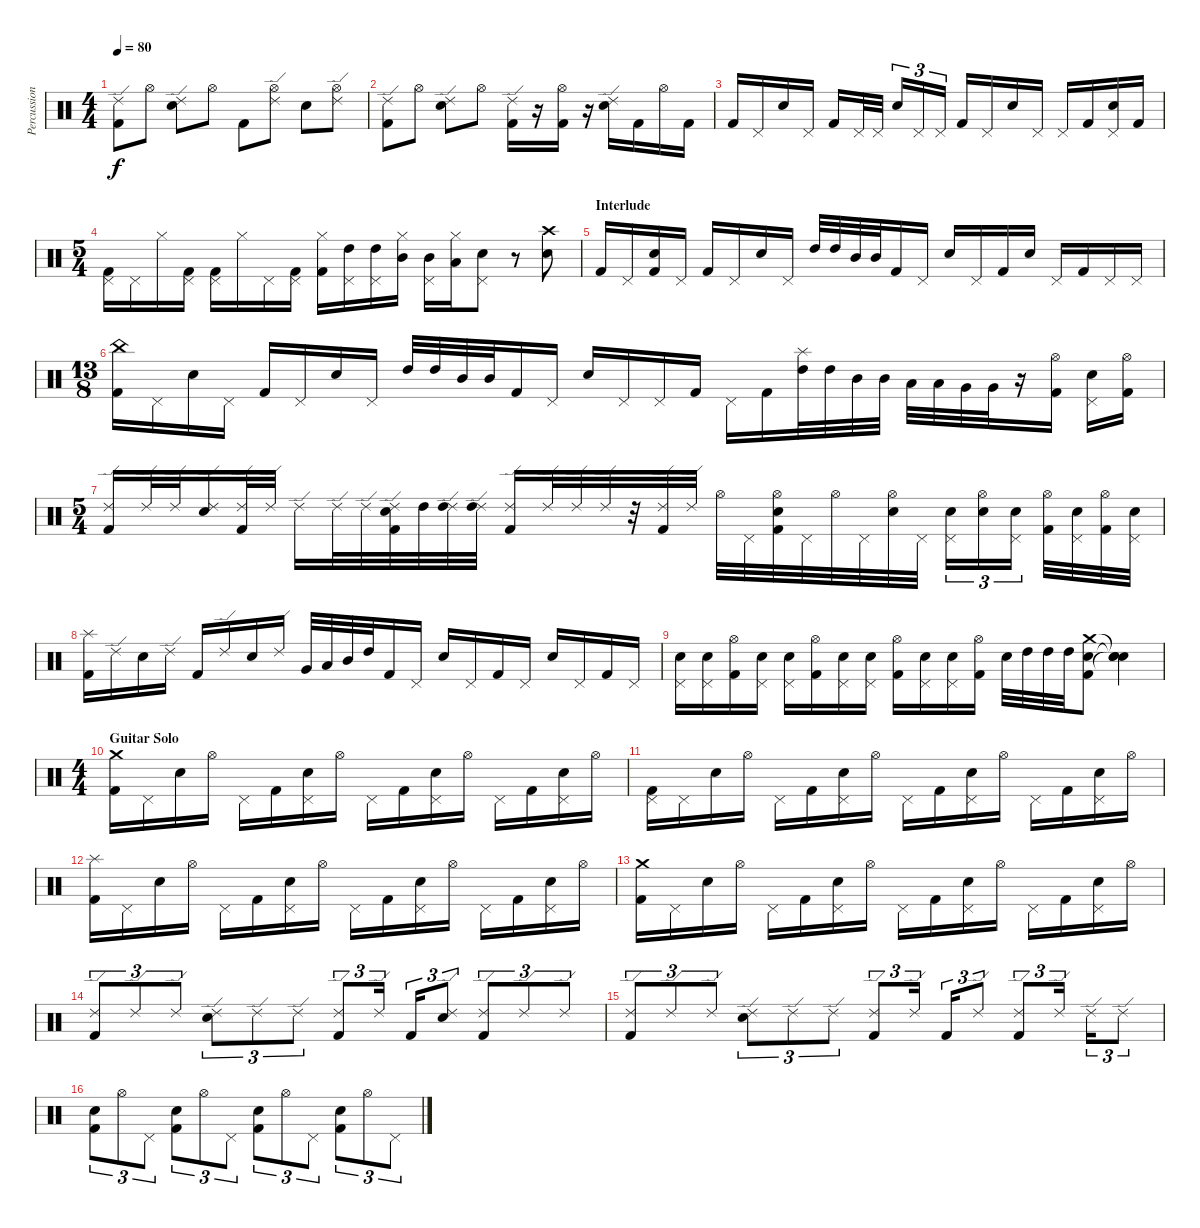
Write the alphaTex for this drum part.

\track ("Percussion" "Percussion") {instrument percussion}
\staff {score}
\articulation defaults
\ts (4 4)
\tempo 80
\clef neutral
\ks c
("Ride (edge) 2" "Kick (hit) 2").8{dy f} "Hi-Hat (open)".8 ("Ride (edge) 2" "Electric Snare (hit)").8 "Hi-Hat (open)".8 "Kick (hit) 2".8 ("Ride (edge) 2" "Hi-Hat (open)").8 "Electric Snare (hit)".8 ("Ride (edge) 2" "Hi-Hat (open)").8 |
("Ride (edge) 2" "Kick (hit) 2").8 "Hi-Hat (open)".8 ("Ride (edge) 2" "Electric Snare (hit)").8 "Hi-Hat (open)".8 ("Ride (edge) 2" "Kick (hit) 2").16 r.16 ("Hi-Hat (open)" "Kick (hit) 2").16 r.16 ("Ride (edge) 2" "Electric Snare (hit)").16 "Kick (hit) 2".16 "Hi-Hat (open)".16 "Kick (hit) 2".16 |
"Kick (hit) 2".16 "Pedal Hi-Hat (hit)".16 "Electric Snare (hit)".16 "Pedal Hi-Hat (hit)".16 "Kick (hit) 2".16 "Pedal Hi-Hat (hit)".32 "Pedal Hi-Hat (hit)".32 "Electric Snare (hit)".16{tu (3 2)} "Pedal Hi-Hat (hit)".16{tu (3 2)} "Pedal Hi-Hat (hit)".16{tu (3 2)} "Kick (hit) 2".16 "Pedal Hi-Hat (hit)".16 "Electric Snare (hit)".16 "Pedal Hi-Hat (hit)".16 "Pedal Hi-Hat (hit)".16 "Kick (hit) 2".16 ("Pedal Hi-Hat (hit)" "Electric Snare (hit)").16 "Kick (hit) 2".16 |
\ts (5 4)
("Pedal Hi-Hat (hit)" "Kick (hit) 2").16 "Pedal Hi-Hat (hit)".16 "Hi-Hat (closed)".16 ("Pedal Hi-Hat (hit)" "Kick (hit) 2").16 ("Pedal Hi-Hat (hit)" "Kick (hit) 2").16 "Hi-Hat (closed)".16 "Pedal Hi-Hat (hit)".16 ("Pedal Hi-Hat (hit)" "Kick (hit) 2").16 ("Hi-Hat (closed)" "Kick (hit) 2").16 ("Pedal Hi-Hat (hit)" "High Tom (hit)").16 ("Pedal Hi-Hat (hit)" "High Tom (hit)").16 ("Hi-Hat (closed)" "Mid Tom (hit)").16 ("Pedal Hi-Hat (hit)" "Mid Tom (hit)").16 ("Hi-Hat (closed)" "Low Tom (hit)").16 ("Pedal Hi-Hat (hit)" "Electric Snare (hit)").8 r.8 ("Crash high (hit)" "Electric Snare (hit)").8 |
\section ("" "Interlude")
"Kick (hit) 2".16 "Pedal Hi-Hat (hit)".16 ("Electric Snare (hit)" "Kick (hit) 2").16 "Pedal Hi-Hat (hit)".16 "Kick (hit) 2".16 "Pedal Hi-Hat (hit)".16 "Electric Snare (hit)".16 "Pedal Hi-Hat (hit)".16 "High Tom (hit)".32 "High Tom (hit)".32 "Mid Tom (hit)".32 "Mid Tom (hit)".32 "Kick (hit) 2".16 "Pedal Hi-Hat (hit)".16 "Electric Snare (hit)".16 "Pedal Hi-Hat (hit)".16 "Kick (hit) 2".16 "Electric Snare (hit)".16 "Pedal Hi-Hat (hit)".16 "Kick (hit) 2".16 "Pedal Hi-Hat (hit)".16 "Pedal Hi-Hat (hit)".16 |
\ts (13 8)
("China (hit)" "Kick (hit) 2").16 "Pedal Hi-Hat (hit)".16 "Electric Snare (hit)".16 "Pedal Hi-Hat (hit)".16 "Kick (hit) 2".16 "Pedal Hi-Hat (hit)".16 "Electric Snare (hit)".16 "Pedal Hi-Hat (hit)".16 "High Tom (hit)".32 "High Tom (hit)".32 "Mid Tom (hit)".32 "Mid Tom (hit)".32 "Kick (hit) 2".16 "Pedal Hi-Hat (hit)".16 "Electric Snare (hit)".16 "Pedal Hi-Hat (hit)".16 "Pedal Hi-Hat (hit)".16 "Kick (hit) 2".16 "Pedal Hi-Hat (hit)".16 "Kick (hit) 2".16 ("Splash (hit)" "High Tom (hit)").32 "High Tom (hit)".32 "Mid Tom (hit)".32 "Mid Tom (hit)".32 "Low Tom (hit)".32 "Low Tom (hit)".32 "Very Low Tom (hit)".32 "Very Low Tom (hit)".32 r.16 ("Hi-Hat (open)" "Kick (hit) 2").16 ("Pedal Hi-Hat (hit)" "Electric Snare (hit)").16 ("Hi-Hat (open)" "Kick (hit) 2").16 |
\ts (5 4)
("Ride (edge) 2" "Kick (hit) 2").16 "Ride (edge) 2".32 "Ride (edge) 2".32 ("Ride (edge) 2" "Electric Snare (hit)").16 ("Ride (edge) 2" "Kick (hit) 2").32 "Ride (edge) 2".32 "Ride (edge) 2".16 "Ride (edge) 2".32 "Ride (edge) 2".32 ("Ride (edge) 2" "Electric Snare (hit)" "Kick (hit) 2").32 "High Tom (hit)".32 ("Ride (edge) 2" "High Tom (hit)").32 ("Ride (edge) 2" "High Tom (hit)").32 ("Ride (edge) 2" "Kick (hit) 2").16 "Ride (edge) 2".32 "Ride (edge) 2".32 "Ride (edge) 2".32 r.32 ("Ride (edge) 2" "Kick (hit) 2").32 "Ride (edge) 2".32 "Hi-Hat (open)".32 "Pedal Hi-Hat (hit)".32 ("Hi-Hat (open)" "Electric Snare (hit)" "Kick (hit) 2").32 "Pedal Hi-Hat (hit)".32 "Hi-Hat (open)".32 "Pedal Hi-Hat (hit)".32 ("Hi-Hat (open)" "Electric Snare (hit)").32 "Pedal Hi-Hat (hit)".32 ("Pedal Hi-Hat (hit)" "Electric Snare (hit)").16{tu (3 2)} ("Hi-Hat (open)" "Electric Snare (hit)").16{tu (3 2)} ("Pedal Hi-Hat (hit)" "Electric Snare (hit)").16{tu (3 2)} ("Hi-Hat (open)" "Kick (hit) 2").32 ("Pedal Hi-Hat (hit)" "Electric Snare (hit)").32 ("Hi-Hat (open)" "Kick (hit) 2").32 ("Pedal Hi-Hat (hit)" "Electric Snare (hit)").32 |
("Splash (hit)" "Kick (hit) 2").16 "Ride (edge) 2".16 "Electric Snare (hit)".16 "Ride (edge) 2".16 "Kick (hit) 2".16 "Ride (edge) 2".16 "Electric Snare (hit)".16 "Ride (edge) 2".16 "Very Low Tom (hit)".32 "Low Tom (hit)".32 "Mid Tom (hit)".32 "High Tom (hit)".32 "Kick (hit) 2".16 "Pedal Hi-Hat (hit)".16 "Electric Snare (hit)".16 "Pedal Hi-Hat (hit)".16 "Kick (hit) 2".16 "Pedal Hi-Hat (hit)".16 "Electric Snare (hit)".16 "Pedal Hi-Hat (hit)".16 "Kick (hit) 2".16 "Pedal Hi-Hat (hit)".16 |
("Pedal Hi-Hat (hit)" "Electric Snare (hit)").16 ("Pedal Hi-Hat (hit)" "Electric Snare (hit)").16 ("Hi-Hat (open)" "Kick (hit) 2").16 ("Pedal Hi-Hat (hit)" "Electric Snare (hit)").16 ("Pedal Hi-Hat (hit)" "Electric Snare (hit)").16 ("Hi-Hat (open)" "Kick (hit) 2").16 ("Pedal Hi-Hat (hit)" "Electric Snare (hit)").16 ("Pedal Hi-Hat (hit)" "Electric Snare (hit)").16 ("Hi-Hat (open)" "Kick (hit) 2").16 ("Pedal Hi-Hat (hit)" "Electric Snare (hit)").16 ("Pedal Hi-Hat (hit)" "Electric Snare (hit)").16 ("Hi-Hat (open)" "Kick (hit) 2").16 "Electric Snare (hit)".32 "High Tom (hit)".32 "High Tom (hit)".32 "High Tom (hit)".32 ("Crash medium (hit)" "Electric Snare (hit)" "Kick (hit) 2").8 ("Snare (hit)"{t} "Snare (hit)"{t} "Snare (hit)"{t}).4 |
\ts (4 4)
\section ("" "Guitar Solo")
("Crash medium (hit)" "Kick (hit) 2").16 "Pedal Hi-Hat (hit)".16 "Electric Snare (hit)".16 "Hi-Hat (open)".16 "Pedal Hi-Hat (hit)".16 "Kick (hit) 2".16 ("Pedal Hi-Hat (hit)" "Electric Snare (hit)").16 "Hi-Hat (open)".16 "Pedal Hi-Hat (hit)".16 "Kick (hit) 2".16 ("Pedal Hi-Hat (hit)" "Electric Snare (hit)").16 "Hi-Hat (open)".16 "Pedal Hi-Hat (hit)".16 "Kick (hit) 2".16 ("Pedal Hi-Hat (hit)" "Electric Snare (hit)").16 "Hi-Hat (open)".16 |
("Pedal Hi-Hat (hit)" "Kick (hit) 2").16 "Pedal Hi-Hat (hit)".16 "Electric Snare (hit)".16 "Hi-Hat (open)".16 "Pedal Hi-Hat (hit)".16 "Kick (hit) 2".16 ("Pedal Hi-Hat (hit)" "Electric Snare (hit)").16 "Hi-Hat (open)".16 "Pedal Hi-Hat (hit)".16 "Kick (hit) 2".16 ("Pedal Hi-Hat (hit)" "Electric Snare (hit)").16 "Hi-Hat (open)".16 "Pedal Hi-Hat (hit)".16 "Kick (hit) 2".16 ("Pedal Hi-Hat (hit)" "Electric Snare (hit)").16 "Hi-Hat (open)".16 |
("Splash (hit)" "Kick (hit) 2").16 "Pedal Hi-Hat (hit)".16 "Electric Snare (hit)".16 "Hi-Hat (open)".16 "Pedal Hi-Hat (hit)".16 "Kick (hit) 2".16 ("Pedal Hi-Hat (hit)" "Electric Snare (hit)").16 "Hi-Hat (open)".16 "Pedal Hi-Hat (hit)".16 "Kick (hit) 2".16 ("Pedal Hi-Hat (hit)" "Electric Snare (hit)").16 "Hi-Hat (open)".16 "Pedal Hi-Hat (hit)".16 "Kick (hit) 2".16 ("Pedal Hi-Hat (hit)" "Electric Snare (hit)").16 "Hi-Hat (open)".16 |
("Crash medium (hit)" "Kick (hit) 2").16 "Pedal Hi-Hat (hit)".16 "Electric Snare (hit)".16 "Hi-Hat (open)".16 "Pedal Hi-Hat (hit)".16 "Kick (hit) 2".16 ("Pedal Hi-Hat (hit)" "Electric Snare (hit)").16 "Hi-Hat (open)".16 "Pedal Hi-Hat (hit)".16 "Kick (hit) 2".16 ("Pedal Hi-Hat (hit)" "Electric Snare (hit)").16 "Hi-Hat (open)".16 "Pedal Hi-Hat (hit)".16 "Kick (hit) 2".16 ("Pedal Hi-Hat (hit)" "Electric Snare (hit)").16 "Hi-Hat (open)".16 |
("Ride (edge) 2" "Kick (hit) 2").8{tu (3 2)} "Ride (edge) 2".8{tu (3 2)} "Ride (edge) 2".8{tu (3 2)} ("Ride (edge) 2" "Electric Snare (hit)").8{tu (3 2)} "Ride (edge) 2".8{tu (3 2)} "Ride (edge) 2".8{tu (3 2)} ("Ride (edge) 2" "Kick (hit) 2").8{tu (3 2)} "Ride (edge) 2".16{tu (3 2)} "Kick (hit) 2".16{tu (3 2)} ("Ride (edge) 2" "Electric Snare (hit)").8{tu (3 2)} ("Ride (edge) 2" "Kick (hit) 2").8{tu (3 2)} "Ride (edge) 2".8{tu (3 2)} "Ride (edge) 2".8{tu (3 2)} |
("Ride (edge) 2" "Kick (hit) 2").8{tu (3 2)} "Ride (edge) 2".8{tu (3 2)} "Ride (edge) 2".8{tu (3 2)} ("Ride (edge) 2" "Electric Snare (hit)").8{tu (3 2)} "Ride (edge) 2".8{tu (3 2)} "Ride (edge) 2".8{tu (3 2)} ("Ride (edge) 2" "Kick (hit) 2").8{tu (3 2)} "Ride (edge) 2".16{tu (3 2)} "Kick (hit) 2".16{tu (3 2)} "Ride (edge) 2".8{tu (3 2)} ("Ride (edge) 2" "Kick (hit) 2").8{tu (3 2)} "Ride (edge) 2".16{tu (3 2)} "Ride (edge) 2".16{tu (3 2)} "Ride (edge) 2".8{tu (3 2)} |
("Electric Snare (hit)" "Kick (hit) 2").8{tu (3 2)} "Hi-Hat (open)".8{tu (3 2)} "Pedal Hi-Hat (hit)".8{tu (3 2)} ("Electric Snare (hit)" "Kick (hit) 2").8{tu (3 2)} "Hi-Hat (open)".8{tu (3 2)} "Pedal Hi-Hat (hit)".8{tu (3 2)} ("Electric Snare (hit)" "Kick (hit) 2").8{tu (3 2)} "Hi-Hat (open)".8{tu (3 2)} "Pedal Hi-Hat (hit)".8{tu (3 2)} ("Electric Snare (hit)" "Kick (hit) 2").8{tu (3 2)} "Hi-Hat (open)".8{tu (3 2)} "Pedal Hi-Hat (hit)".8{tu (3 2)}
